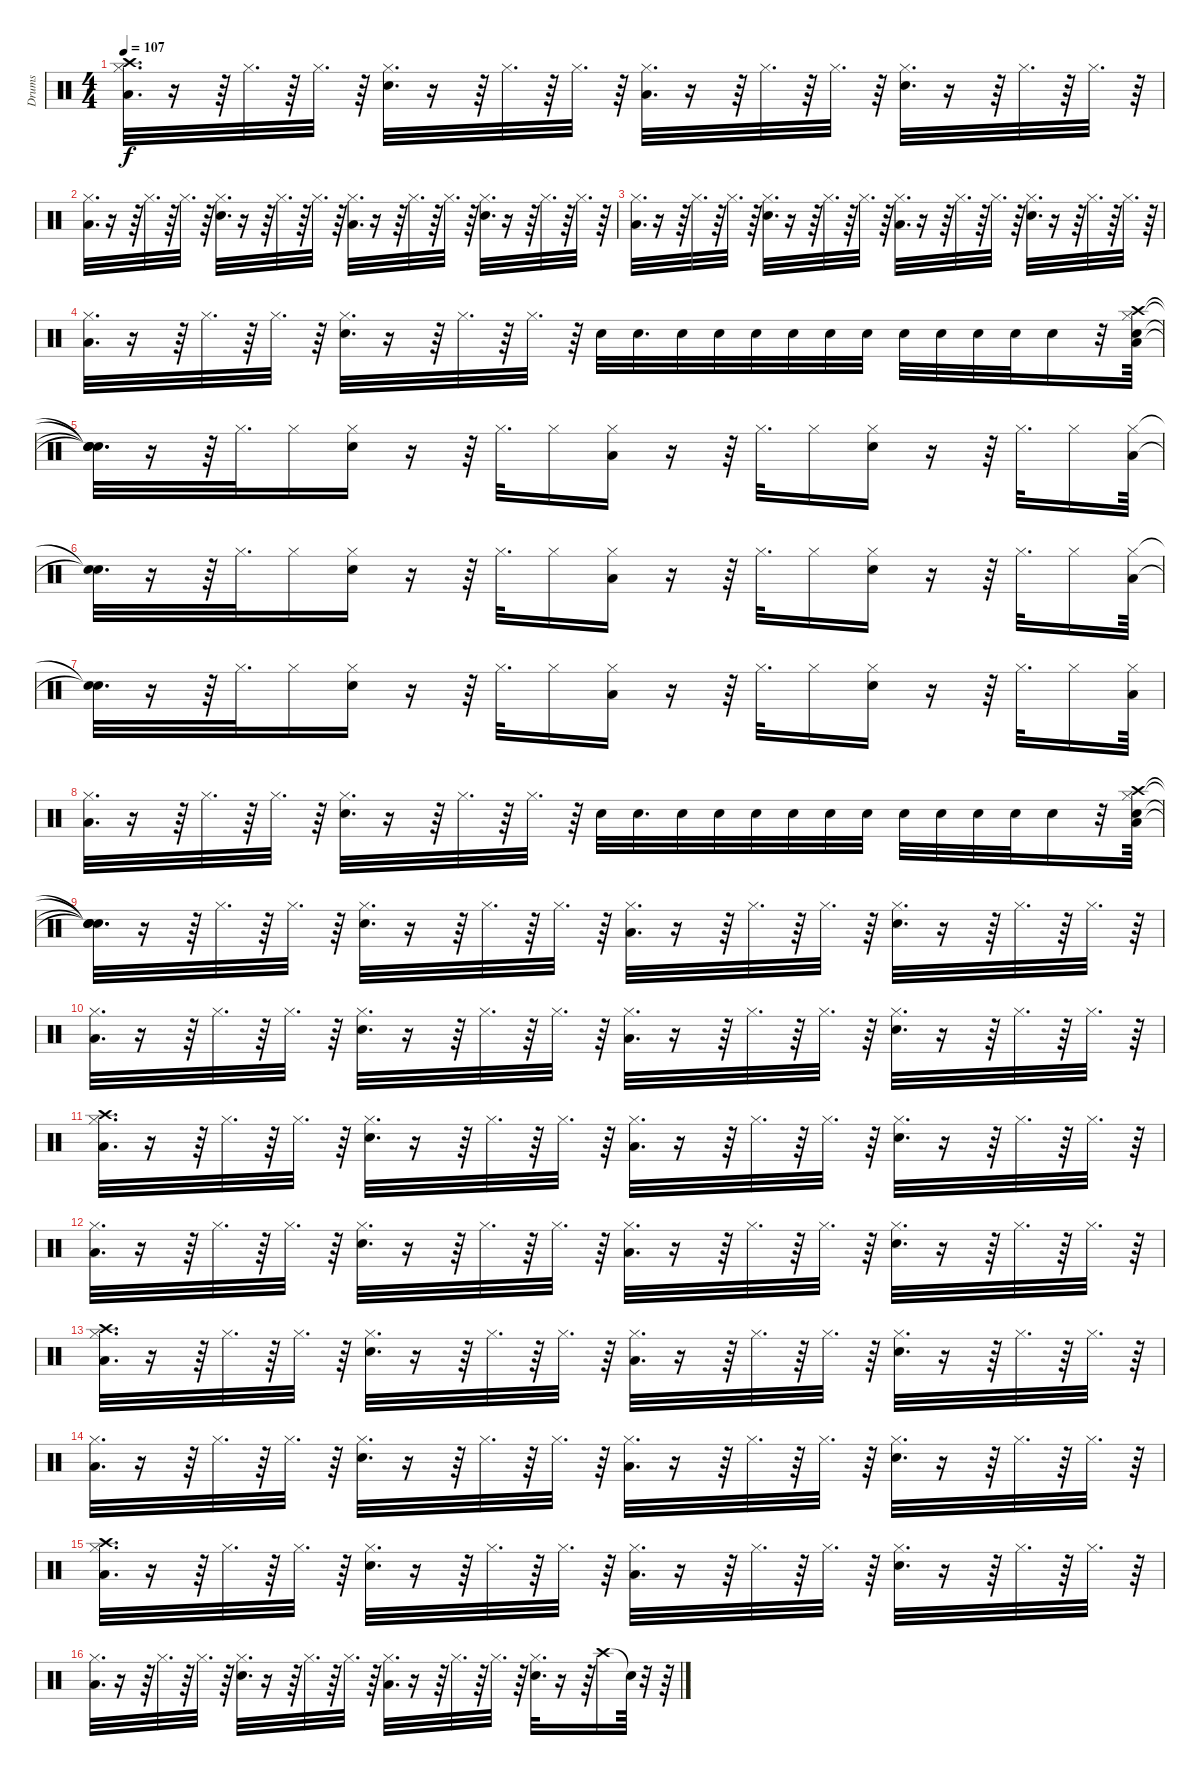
\track ("Drums" "Drums") {instrument percussion}
\staff {score}
\articulation defaults
\ts (4 4)
\tempo 107
\clef neutral
\ks c
("Hi-Hat (closed)" "Crash high (hit)" "Low Tom (hit)").32{d dy f} r.16 r.64 "Hi-Hat (closed)".32{d} r.64 "Hi-Hat (closed)".32{d} r.64 ("Hi-Hat (closed)" "Snare (hit) 2").32{d} r.16 r.64 "Hi-Hat (closed)".32{d} r.64 "Hi-Hat (closed)".32{d} r.64 ("Hi-Hat (closed)" "Low Tom (hit)").32{d} r.16 r.64 "Hi-Hat (closed)".32{d} r.64 "Hi-Hat (closed)".32{d} r.64 ("Hi-Hat (closed)" "Snare (hit) 2").32{d} r.16 r.64 "Hi-Hat (closed)".32{d} r.64 "Hi-Hat (closed)".32{d} r.64 |
("Hi-Hat (closed)" "Low Tom (hit)").32{d} r.16 r.64 "Hi-Hat (closed)".32{d} r.64 "Hi-Hat (closed)".32{d} r.64 ("Hi-Hat (closed)" "Snare (hit) 2").32{d} r.16 r.64 "Hi-Hat (closed)".32{d} r.64 "Hi-Hat (closed)".32{d} r.64 ("Hi-Hat (closed)" "Low Tom (hit)").32{d} r.16 r.64 "Hi-Hat (closed)".32{d} r.64 "Hi-Hat (closed)".32{d} r.64 ("Hi-Hat (closed)" "Snare (hit) 2").32{d} r.16 r.64 "Hi-Hat (closed)".32{d} r.64 "Hi-Hat (closed)".32{d} r.64 |
("Hi-Hat (closed)" "Low Tom (hit)").32{d} r.16 r.64 "Hi-Hat (closed)".32{d} r.64 "Hi-Hat (closed)".32{d} r.64 ("Hi-Hat (closed)" "Snare (hit) 2").32{d} r.16 r.64 "Hi-Hat (closed)".32{d} r.64 "Hi-Hat (closed)".32{d} r.64 ("Hi-Hat (closed)" "Low Tom (hit)").32{d} r.16 r.64 "Hi-Hat (closed)".32{d} r.64 "Hi-Hat (closed)".32{d} r.64 ("Hi-Hat (closed)" "Snare (hit) 2").32{d} r.16 r.64 "Hi-Hat (closed)".32{d} r.64 "Hi-Hat (closed)".32{d} r.64 |
("Hi-Hat (closed)" "Low Tom (hit)").32{d} r.16 r.64 "Hi-Hat (closed)".32{d} r.64 "Hi-Hat (closed)".32{d} r.64 ("Hi-Hat (closed)" "Snare (hit) 2").32{d} r.16 r.64 "Hi-Hat (closed)".32{d} r.64 "Hi-Hat (closed)".32{d} r.64 "Snare (hit) 2".32 "Snare (hit) 2".32{d} "Snare (hit) 2".32 "Snare (hit) 2".32 "Snare (hit) 2".32 "Snare (hit) 2".32 "Snare (hit) 2".32 "Snare (hit) 2".32 "Snare (hit) 2".32 "Snare (hit) 2".32 "Snare (hit) 2".32 "Snare (hit) 2".32 "Snare (hit) 2".16 r.32 ("Hi-Hat (closed)" "Crash high (hit)" "Low Tom (hit)" "Snare (hit) 2").64 |
("Snare (hit)"{t} "Snare (hit)"{t} "Snare (hit)"{t} "Snare (hit)"{t}).32{d} r.16 r.64 "Hi-Hat (closed)".32{d} "Hi-Hat (closed)".16 ("Hi-Hat (closed)" "Snare (hit) 2").16 r.16 r.64 "Hi-Hat (closed)".32{d} "Hi-Hat (closed)".16 ("Hi-Hat (closed)" "Low Tom (hit)").16 r.16 r.64 "Hi-Hat (closed)".32{d} "Hi-Hat (closed)".16 ("Hi-Hat (closed)" "Snare (hit) 2").16 r.16 r.64 "Hi-Hat (closed)".32{d} "Hi-Hat (closed)".16 ("Hi-Hat (closed)" "Low Tom (hit)").64 |
("Snare (hit)"{t} "Snare (hit)"{t}).32{d} r.16 r.64 "Hi-Hat (closed)".32{d} "Hi-Hat (closed)".16 ("Hi-Hat (closed)" "Snare (hit) 2").16 r.16 r.64 "Hi-Hat (closed)".32{d} "Hi-Hat (closed)".16 ("Hi-Hat (closed)" "Low Tom (hit)").16 r.16 r.64 "Hi-Hat (closed)".32{d} "Hi-Hat (closed)".16 ("Hi-Hat (closed)" "Snare (hit) 2").16 r.16 r.64 "Hi-Hat (closed)".32{d} "Hi-Hat (closed)".16 ("Hi-Hat (closed)" "Low Tom (hit)").64 |
("Snare (hit)"{t} "Snare (hit)"{t}).32{d} r.16 r.64 "Hi-Hat (closed)".32{d} "Hi-Hat (closed)".16 ("Hi-Hat (closed)" "Snare (hit) 2").16 r.16 r.64 "Hi-Hat (closed)".32{d} "Hi-Hat (closed)".16 ("Hi-Hat (closed)" "Low Tom (hit)").16 r.16 r.64 "Hi-Hat (closed)".32{d} "Hi-Hat (closed)".16 ("Hi-Hat (closed)" "Snare (hit) 2").16 r.16 r.64 "Hi-Hat (closed)".32{d} "Hi-Hat (closed)".16 ("Hi-Hat (closed)" "Low Tom (hit)").64 |
("Hi-Hat (closed)" "Low Tom (hit)").32{d} r.16 r.64 "Hi-Hat (closed)".32{d} r.64 "Hi-Hat (closed)".32{d} r.64 ("Hi-Hat (closed)" "Snare (hit) 2").32{d} r.16 r.64 "Hi-Hat (closed)".32{d} r.64 "Hi-Hat (closed)".32{d} r.64 "Snare (hit) 2".32 "Snare (hit) 2".32{d} "Snare (hit) 2".32 "Snare (hit) 2".32 "Snare (hit) 2".32 "Snare (hit) 2".32 "Snare (hit) 2".32 "Snare (hit) 2".32 "Snare (hit) 2".32 "Snare (hit) 2".32 "Snare (hit) 2".32 "Snare (hit) 2".32 "Snare (hit) 2".16 r.32 ("Hi-Hat (closed)" "Crash high (hit)" "Low Tom (hit)" "Snare (hit) 2").64 |
("Snare (hit)"{t} "Snare (hit)"{t} "Snare (hit)"{t} "Snare (hit)"{t}).32{d} r.16 r.64 "Hi-Hat (closed)".32{d} r.64 "Hi-Hat (closed)".32{d} r.64 ("Hi-Hat (closed)" "Snare (hit) 2").32{d} r.16 r.64 "Hi-Hat (closed)".32{d} r.64 "Hi-Hat (closed)".32{d} r.64 ("Hi-Hat (closed)" "Low Tom (hit)").32{d} r.16 r.64 "Hi-Hat (closed)".32{d} r.64 "Hi-Hat (closed)".32{d} r.64 ("Hi-Hat (closed)" "Snare (hit) 2").32{d} r.16 r.64 "Hi-Hat (closed)".32{d} r.64 "Hi-Hat (closed)".32{d} r.64 |
("Hi-Hat (closed)" "Low Tom (hit)").32{d} r.16 r.64 "Hi-Hat (closed)".32{d} r.64 "Hi-Hat (closed)".32{d} r.64 ("Hi-Hat (closed)" "Snare (hit) 2").32{d} r.16 r.64 "Hi-Hat (closed)".32{d} r.64 "Hi-Hat (closed)".32{d} r.64 ("Hi-Hat (closed)" "Low Tom (hit)").32{d} r.16 r.64 "Hi-Hat (closed)".32{d} r.64 "Hi-Hat (closed)".32{d} r.64 ("Hi-Hat (closed)" "Snare (hit) 2").32{d} r.16 r.64 "Hi-Hat (closed)".32{d} r.64 "Hi-Hat (closed)".32{d} r.64 |
("Hi-Hat (closed)" "Crash high (hit)" "Low Tom (hit)").32{d} r.16 r.64 "Hi-Hat (closed)".32{d} r.64 "Hi-Hat (closed)".32{d} r.64 ("Hi-Hat (closed)" "Snare (hit) 2").32{d} r.16 r.64 "Hi-Hat (closed)".32{d} r.64 "Hi-Hat (closed)".32{d} r.64 ("Hi-Hat (closed)" "Low Tom (hit)").32{d} r.16 r.64 "Hi-Hat (closed)".32{d} r.64 "Hi-Hat (closed)".32{d} r.64 ("Hi-Hat (closed)" "Snare (hit) 2").32{d} r.16 r.64 "Hi-Hat (closed)".32{d} r.64 "Hi-Hat (closed)".32{d} r.64 |
("Hi-Hat (closed)" "Low Tom (hit)").32{d} r.16 r.64 "Hi-Hat (closed)".32{d} r.64 "Hi-Hat (closed)".32{d} r.64 ("Hi-Hat (closed)" "Snare (hit) 2").32{d} r.16 r.64 "Hi-Hat (closed)".32{d} r.64 "Hi-Hat (closed)".32{d} r.64 ("Hi-Hat (closed)" "Low Tom (hit)").32{d} r.16 r.64 "Hi-Hat (closed)".32{d} r.64 "Hi-Hat (closed)".32{d} r.64 ("Hi-Hat (closed)" "Snare (hit) 2").32{d} r.16 r.64 "Hi-Hat (closed)".32{d} r.64 "Hi-Hat (closed)".32{d} r.64 |
("Hi-Hat (closed)" "Crash high (hit)" "Low Tom (hit)").32{d} r.16 r.64 "Hi-Hat (closed)".32{d} r.64 "Hi-Hat (closed)".32{d} r.64 ("Hi-Hat (closed)" "Snare (hit) 2").32{d} r.16 r.64 "Hi-Hat (closed)".32{d} r.64 "Hi-Hat (closed)".32{d} r.64 ("Hi-Hat (closed)" "Low Tom (hit)").32{d} r.16 r.64 "Hi-Hat (closed)".32{d} r.64 "Hi-Hat (closed)".32{d} r.64 ("Hi-Hat (closed)" "Snare (hit) 2").32{d} r.16 r.64 "Hi-Hat (closed)".32{d} r.64 "Hi-Hat (closed)".32{d} r.64 |
("Hi-Hat (closed)" "Low Tom (hit)").32{d} r.16 r.64 "Hi-Hat (closed)".32{d} r.64 "Hi-Hat (closed)".32{d} r.64 ("Hi-Hat (closed)" "Snare (hit) 2").32{d} r.16 r.64 "Hi-Hat (closed)".32{d} r.64 "Hi-Hat (closed)".32{d} r.64 ("Hi-Hat (closed)" "Low Tom (hit)").32{d} r.16 r.64 "Hi-Hat (closed)".32{d} r.64 "Hi-Hat (closed)".32{d} r.64 ("Hi-Hat (closed)" "Snare (hit) 2").32{d} r.16 r.64 "Hi-Hat (closed)".32{d} r.64 "Hi-Hat (closed)".32{d} r.64 |
("Hi-Hat (closed)" "Crash high (hit)" "Low Tom (hit)").32{d} r.16 r.64 "Hi-Hat (closed)".32{d} r.64 "Hi-Hat (closed)".32{d} r.64 ("Hi-Hat (closed)" "Snare (hit) 2").32{d} r.16 r.64 "Hi-Hat (closed)".32{d} r.64 "Hi-Hat (closed)".32{d} r.64 ("Hi-Hat (closed)" "Low Tom (hit)").32{d} r.16 r.64 "Hi-Hat (closed)".32{d} r.64 "Hi-Hat (closed)".32{d} r.64 ("Hi-Hat (closed)" "Snare (hit) 2").32{d} r.16 r.64 "Hi-Hat (closed)".32{d} r.64 "Hi-Hat (closed)".32{d} r.64 |
("Hi-Hat (closed)" "Low Tom (hit)").32{d} r.16 r.64 "Hi-Hat (closed)".32{d} r.64 "Hi-Hat (closed)".32{d} r.64 ("Hi-Hat (closed)" "Snare (hit) 2").32{d} r.16 r.64 "Hi-Hat (closed)".32{d} r.64 "Hi-Hat (closed)".32{d} r.64 ("Hi-Hat (closed)" "Low Tom (hit)").32{d} r.16 r.64 "Hi-Hat (closed)".32{d} r.64 "Hi-Hat (closed)".32{d} r.64 ("Hi-Hat (closed)" "Snare (hit) 2").32{d} r.16 r.64 "Crash high (hit)".16 "Snare (hit)"{t}.64 r.32 r.64
